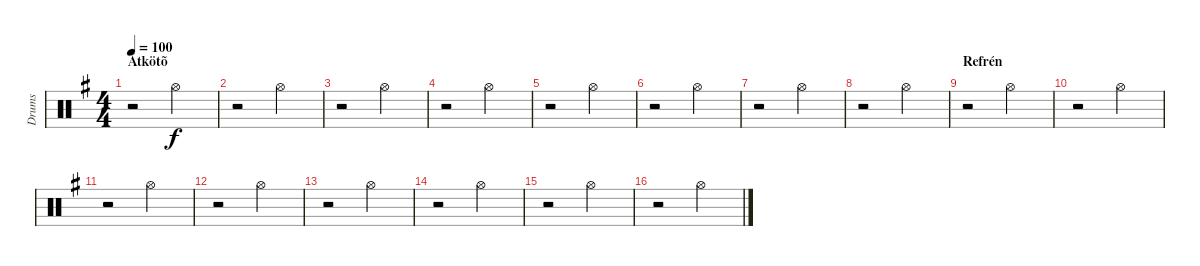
\track ("Drums" "Drums") {instrument percussion}
\staff {score}
\articulation defaults
\ts (4 4)
\section ("" "Átkötõ")
\tempo 100
\clef neutral
\ks g
r.2{dy f} "Hi-Hat (open)".2 |
r.2 "Hi-Hat (open)".2 |
r.2 "Hi-Hat (open)".2 |
r.2 "Hi-Hat (open)".2 |
r.2 "Hi-Hat (open)".2 |
r.2 "Hi-Hat (open)".2 |
r.2 "Hi-Hat (open)".2 |
r.2 "Hi-Hat (open)".2 |
\section ("" "Refrén")
r.2 "Hi-Hat (open)".2 |
r.2 "Hi-Hat (open)".2 |
r.2 "Hi-Hat (open)".2 |
r.2 "Hi-Hat (open)".2 |
r.2 "Hi-Hat (open)".2 |
r.2 "Hi-Hat (open)".2 |
r.2 "Hi-Hat (open)".2 |
r.2 "Hi-Hat (open)".2
